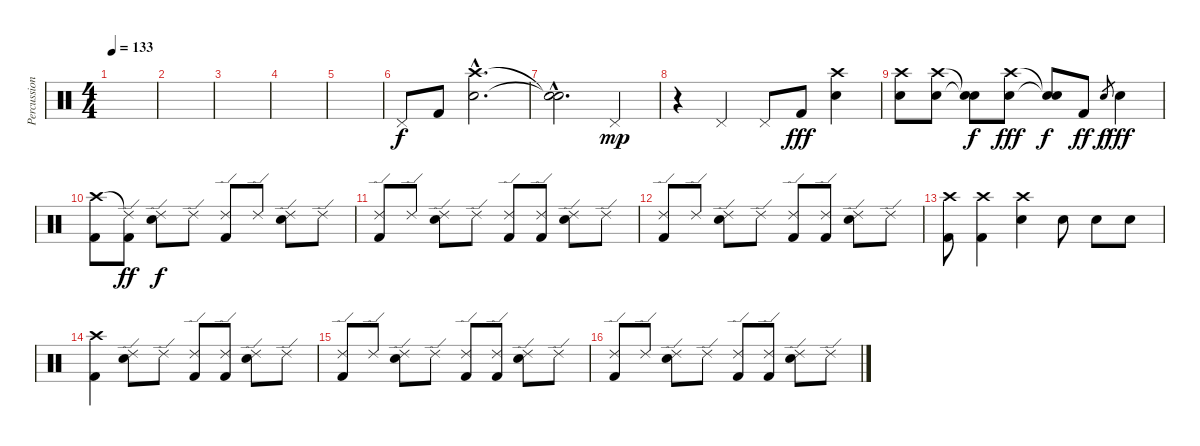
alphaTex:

\track ("Percussion" "Percussion") {instrument percussion}
\staff {score}
\articulation defaults
\ts (4 4)
\tempo 133
\clef neutral
\ks c
|
|
|
|
|
"Pedal Hi-Hat (hit)".8 "Kick (hit) 2".8 ("Crash high (hit)"{hac} "Electric Snare (hit)"{hac}).2{d} |
("Snare (hit)"{hac t} "Snare (hit)"{hac t}).2{d dy f} "Pedal Hi-Hat (hit)".4{dy mp} |
r.4 "Pedal Hi-Hat (hit)".4 "Pedal Hi-Hat (hit)".8 "Kick (hit) 2".8{dy fff} ("Crash high (hit)" "Electric Snare (hit)").4 |
("Crash high (hit)" "Electric Snare (hit)").8 ("Crash high (hit)" "Electric Snare (hit)").8 ("Snare (hit)"{t} "Snare (hit)"{t}).8{dy f} ("Crash high (hit)" "Electric Snare (hit)").8{dy fff} ("Snare (hit)"{t} "Snare (hit)"{t}).8{dy f} "Kick (hit) 2".8{dy ff} "Electric Snare (hit)".8{gr dy f} "Electric Snare (hit)".4{dy fff} |
("Crash high (hit)" "Kick (hit) 2").8 ("Ride (edge) 2"{t} "Kick (hit) 2").8{dy ff} ("Ride (edge) 2" "Snare (hit) 2").8{dy f} "Ride (edge) 2".8 ("Ride (edge) 2" "Kick (hit) 2").8 "Ride (edge) 2".8 ("Ride (edge) 2" "Snare (hit) 2").8 "Ride (edge) 2".8 |
("Ride (edge) 2" "Kick (hit) 2").8 "Ride (edge) 2".8 ("Ride (edge) 2" "Snare (hit) 2").8 "Ride (edge) 2".8 ("Ride (edge) 2" "Kick (hit) 2").8 ("Ride (edge) 2" "Kick (hit) 2").8 ("Ride (edge) 2" "Snare (hit) 2").8 "Ride (edge) 2".8 |
("Ride (edge) 2" "Kick (hit) 2").8 "Ride (edge) 2".8 ("Ride (edge) 2" "Snare (hit) 2").8 "Ride (edge) 2".8 ("Ride (edge) 2" "Kick (hit) 2").8 ("Ride (edge) 2" "Kick (hit) 2").8 ("Ride (edge) 2" "Snare (hit) 2").8 "Ride (edge) 2".8 |
("Crash high (hit)" "Kick (hit) 2").8 ("Crash high (hit)" "Kick (hit) 2").4 ("Crash high (hit)" "Snare (hit) 2").4 "Electric Snare (hit)".8 "Electric Snare (hit)".8 "Electric Snare (hit)".8 |
("Crash high (hit)" "Kick (hit) 2").4 ("Ride (edge) 2" "Snare (hit) 2").8 "Ride (edge) 2".8 ("Ride (edge) 2" "Kick (hit) 2").8 ("Ride (edge) 2" "Kick (hit) 2").8 ("Ride (edge) 2" "Snare (hit) 2").8 "Ride (edge) 2".8 |
("Ride (edge) 2" "Kick (hit) 2").8 "Ride (edge) 2".8 ("Ride (edge) 2" "Snare (hit) 2").8 "Ride (edge) 2".8 ("Ride (edge) 2" "Kick (hit) 2").8 ("Ride (edge) 2" "Kick (hit) 2").8 ("Ride (edge) 2" "Snare (hit) 2").8 "Ride (edge) 2".8 |
("Ride (edge) 2" "Kick (hit) 2").8 "Ride (edge) 2".8 ("Ride (edge) 2" "Snare (hit) 2").8 "Ride (edge) 2".8 ("Ride (edge) 2" "Kick (hit) 2").8 ("Ride (edge) 2" "Kick (hit) 2").8 ("Ride (edge) 2" "Snare (hit) 2").8 "Ride (edge) 2".8
